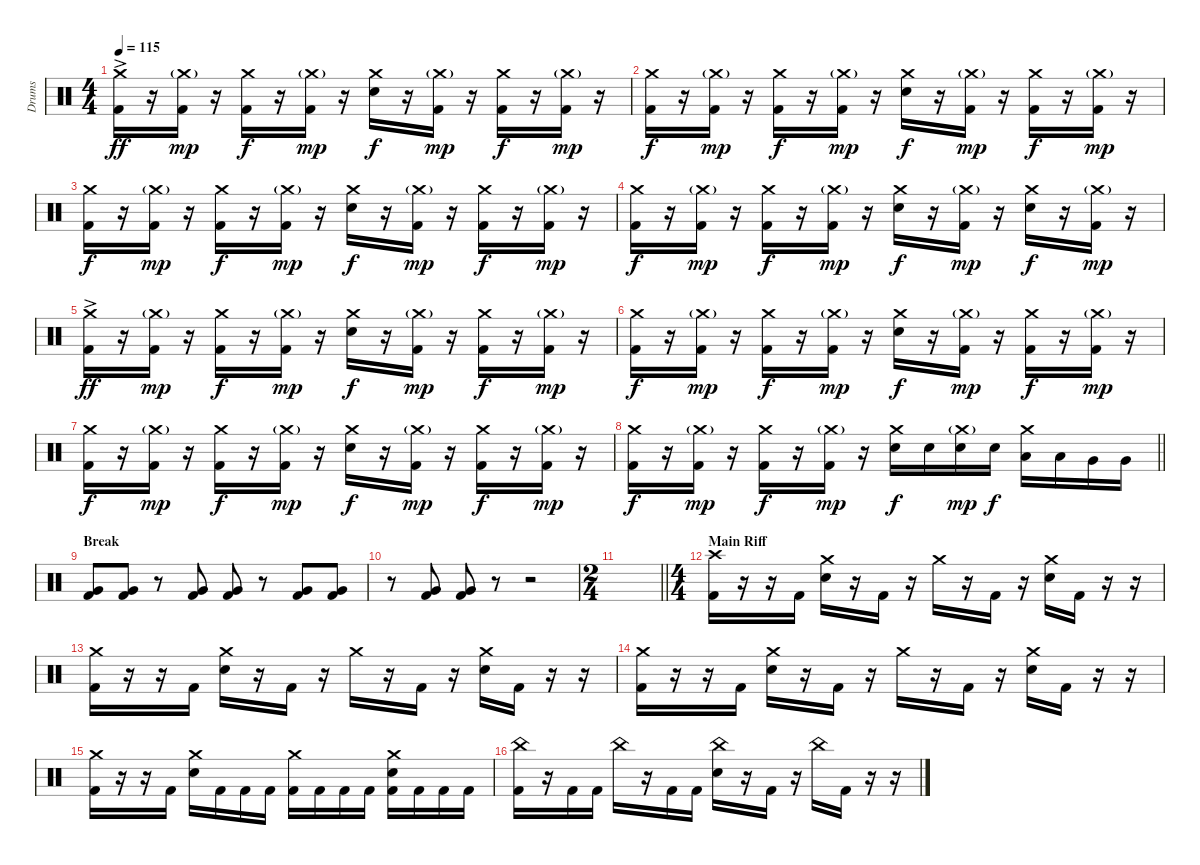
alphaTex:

\track ("Drums" "Drums") {instrument percussion}
\staff {score}
\articulation defaults
\ts (4 4)
\tempo 115
\clef neutral
\ks c
("Crash medium (hit)"{ac} "Kick (hit) 2").16{dy ff} r.16 ("Crash medium (hit)"{g} "Kick (hit) 2").16{dy mp} r.16 ("Crash medium (hit)" "Kick (hit) 2").16{dy f} r.16 ("Crash medium (hit)"{g} "Kick (hit) 2").16{dy mp} r.16 ("Crash medium (hit)" "Electric Snare (hit)").16{dy f} r.16 ("Crash medium (hit)"{g} "Kick (hit) 2").16{dy mp} r.16 ("Crash medium (hit)" "Kick (hit) 2").16{dy f} r.16 ("Crash medium (hit)"{g} "Kick (hit) 2").16{dy mp} r.16 |
("Crash medium (hit)" "Kick (hit) 2").16{dy f} r.16 ("Crash medium (hit)"{g} "Kick (hit) 2").16{dy mp} r.16 ("Crash medium (hit)" "Kick (hit) 2").16{dy f} r.16 ("Crash medium (hit)"{g} "Kick (hit) 2").16{dy mp} r.16 ("Crash medium (hit)" "Electric Snare (hit)").16{dy f} r.16 ("Crash medium (hit)"{g} "Kick (hit) 2").16{dy mp} r.16 ("Crash medium (hit)" "Kick (hit) 2").16{dy f} r.16 ("Crash medium (hit)"{g} "Kick (hit) 2").16{dy mp} r.16 |
("Crash medium (hit)" "Kick (hit) 2").16{dy f} r.16 ("Crash medium (hit)"{g} "Kick (hit) 2").16{dy mp} r.16 ("Crash medium (hit)" "Kick (hit) 2").16{dy f} r.16 ("Crash medium (hit)"{g} "Kick (hit) 2").16{dy mp} r.16 ("Crash medium (hit)" "Electric Snare (hit)").16{dy f} r.16 ("Crash medium (hit)"{g} "Kick (hit) 2").16{dy mp} r.16 ("Crash medium (hit)" "Kick (hit) 2").16{dy f} r.16 ("Crash medium (hit)"{g} "Kick (hit) 2").16{dy mp} r.16 |
("Crash medium (hit)" "Kick (hit) 2").16{dy f} r.16 ("Crash medium (hit)"{g} "Kick (hit) 2").16{dy mp} r.16 ("Crash medium (hit)" "Kick (hit) 2").16{dy f} r.16 ("Crash medium (hit)"{g} "Kick (hit) 2").16{dy mp} r.16 ("Crash medium (hit)" "Electric Snare (hit)").16{dy f} r.16 ("Crash medium (hit)"{g} "Kick (hit) 2").16{dy mp} r.16 ("Crash medium (hit)" "Electric Snare (hit)").16{dy f} r.16 ("Crash medium (hit)"{g} "Kick (hit) 2").16{dy mp} r.16 |
("Crash medium (hit)"{ac} "Kick (hit) 2").16{dy ff} r.16 ("Crash medium (hit)"{g} "Kick (hit) 2").16{dy mp} r.16 ("Crash medium (hit)" "Kick (hit) 2").16{dy f} r.16 ("Crash medium (hit)"{g} "Kick (hit) 2").16{dy mp} r.16 ("Crash medium (hit)" "Electric Snare (hit)").16{dy f} r.16 ("Crash medium (hit)"{g} "Kick (hit) 2").16{dy mp} r.16 ("Crash medium (hit)" "Kick (hit) 2").16{dy f} r.16 ("Crash medium (hit)"{g} "Kick (hit) 2").16{dy mp} r.16 |
("Crash medium (hit)" "Kick (hit) 2").16{dy f} r.16 ("Crash medium (hit)"{g} "Kick (hit) 2").16{dy mp} r.16 ("Crash medium (hit)" "Kick (hit) 2").16{dy f} r.16 ("Crash medium (hit)"{g} "Kick (hit) 2").16{dy mp} r.16 ("Crash medium (hit)" "Electric Snare (hit)").16{dy f} r.16 ("Crash medium (hit)"{g} "Kick (hit) 2").16{dy mp} r.16 ("Crash medium (hit)" "Kick (hit) 2").16{dy f} r.16 ("Crash medium (hit)"{g} "Kick (hit) 2").16{dy mp} r.16 |
("Crash medium (hit)" "Kick (hit) 2").16{dy f} r.16 ("Crash medium (hit)"{g} "Kick (hit) 2").16{dy mp} r.16 ("Crash medium (hit)" "Kick (hit) 2").16{dy f} r.16 ("Crash medium (hit)"{g} "Kick (hit) 2").16{dy mp} r.16 ("Crash medium (hit)" "Electric Snare (hit)").16{dy f} r.16 ("Crash medium (hit)"{g} "Kick (hit) 2").16{dy mp} r.16 ("Crash medium (hit)" "Kick (hit) 2").16{dy f} r.16 ("Crash medium (hit)"{g} "Kick (hit) 2").16{dy mp} r.16 |
\barLineRight lightlight
("Crash medium (hit)" "Kick (hit) 2").16{dy f} r.16 ("Crash medium (hit)"{g} "Kick (hit) 2").16{dy mp} r.16 ("Crash medium (hit)" "Kick (hit) 2").16{dy f} r.16 ("Crash medium (hit)"{g} "Kick (hit) 2").16{dy mp} r.16 ("Crash medium (hit)" "Electric Snare (hit)").16{dy f} "Electric Snare (hit)".16 ("Crash medium (hit)"{g} "Electric Snare (hit)").16{dy mp} "Electric Snare (hit)".16{dy f} ("Crash medium (hit)" "Low Tom (hit)").16 "Low Tom (hit)".16 "Very Low Tom (hit)".16 "Very Low Tom (hit)".16 |
\section ("" "Break")
("Very Low Tom (hit)" "Kick (hit) 2").8 ("Very Low Tom (hit)" "Kick (hit) 2").8 r.8 ("Very Low Tom (hit)" "Kick (hit) 2").8 ("Very Low Tom (hit)" "Kick (hit) 2").8 r.8 ("Very Low Tom (hit)" "Kick (hit) 2").8 ("Very Low Tom (hit)" "Kick (hit) 2").8 |
r.8 ("Very Low Tom (hit)" "Kick (hit) 2").8 ("Very Low Tom (hit)" "Kick (hit) 2").8 r.8 r.2 |
\ts (2 4)
\barLineRight lightlight
|
\ts (4 4)
\section ("" "Main Riff")
("Crash high (hit)" "Kick (hit) 2").16 r.16 r.16 "Kick (hit) 2".16 ("Crash medium (hit)" "Electric Snare (hit)").16 r.16 "Kick (hit) 2".16 r.16 "Crash medium (hit)".16 r.16 "Kick (hit) 2".16 r.16 ("Crash medium (hit)" "Electric Snare (hit)").16 "Kick (hit) 2".16 r.16 r.16 |
("Crash medium (hit)" "Kick (hit) 2").16 r.16 r.16 "Kick (hit) 2".16 ("Crash medium (hit)" "Electric Snare (hit)").16 r.16 "Kick (hit) 2".16 r.16 "Crash medium (hit)".16 r.16 "Kick (hit) 2".16 r.16 ("Crash medium (hit)" "Electric Snare (hit)").16 "Kick (hit) 2".16 r.16 r.16 |
("Crash medium (hit)" "Kick (hit) 2").16 r.16 r.16 "Kick (hit) 2".16 ("Crash medium (hit)" "Electric Snare (hit)").16 r.16 "Kick (hit) 2".16 r.16 "Crash medium (hit)".16 r.16 "Kick (hit) 2".16 r.16 ("Crash medium (hit)" "Electric Snare (hit)").16 "Kick (hit) 2".16 r.16 r.16 |
("Crash medium (hit)" "Kick (hit) 2").16 r.16 r.16 "Kick (hit) 2".16 ("Crash medium (hit)" "Electric Snare (hit)").16 "Kick (hit) 2".16 "Kick (hit) 2".16 "Kick (hit) 2".16 ("Crash medium (hit)" "Kick (hit) 2").16 "Kick (hit) 2".16 "Kick (hit) 2".16 "Kick (hit) 2".16 ("Crash medium (hit)" "Electric Snare (hit)" "Kick (hit) 2").16 "Kick (hit) 2".16 "Kick (hit) 2".16 "Kick (hit) 2".16 |
("China (hit)" "Kick (hit) 2").16 r.16 "Kick (hit) 2".16 "Kick (hit) 2".16 "China (hit)".16 r.16 "Kick (hit) 2".16 "Kick (hit) 2".16 ("China (hit)" "Electric Snare (hit)").16 r.16 "Kick (hit) 2".16 r.16 "China (hit)".16 "Kick (hit) 2".16 r.16 r.16
